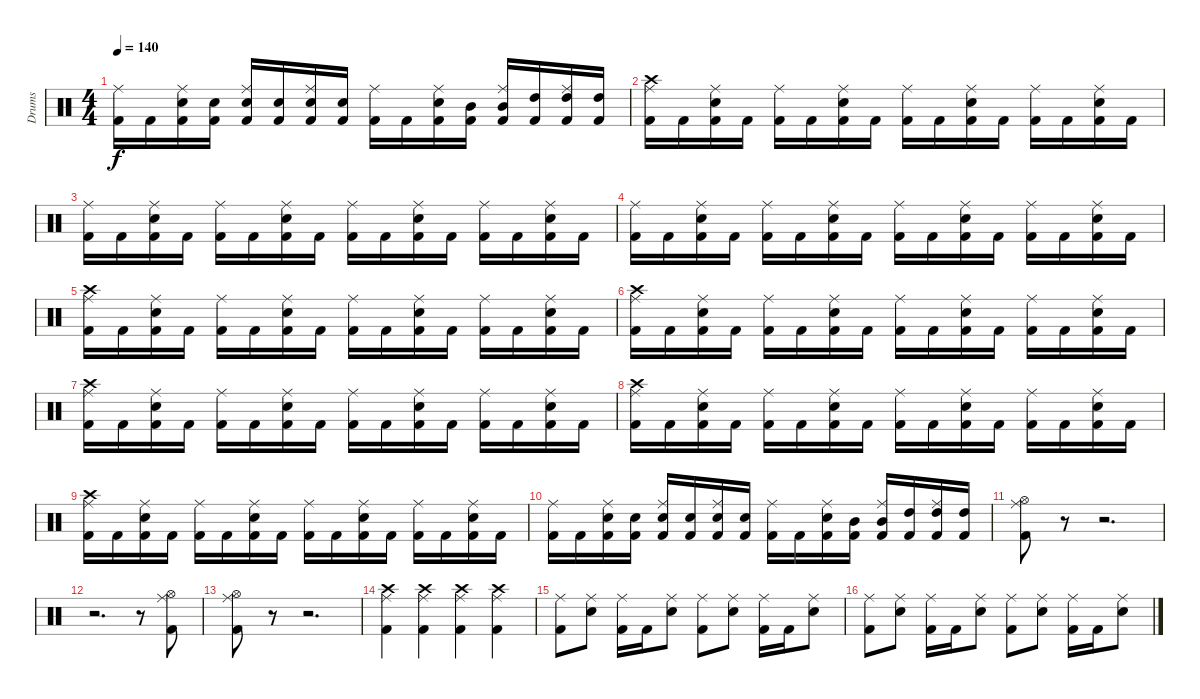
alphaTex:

\track ("Drums" "Drums") {instrument percussion}
\staff {score}
\articulation defaults
\ts (4 4)
\tempo 140
\clef neutral
\ks c
("Kick (hit) 2" "Ride (middle)").16{dy f} "Kick (hit) 2".16 ("Kick (hit) 2" "Snare (hit) 2" "Ride (middle)").16 ("Kick (hit) 2" "Snare (hit) 2").16 ("Kick (hit) 2" "Snare (hit) 2" "Ride (middle)").16 ("Kick (hit) 2" "Snare (hit) 2").16 ("Kick (hit) 2" "Snare (hit) 2" "Ride (middle)").16 ("Kick (hit) 2" "Snare (hit) 2").16 ("Kick (hit) 2" "Ride (middle)").16 "Kick (hit) 2".16 ("Kick (hit) 2" "Snare (hit) 2" "Ride (middle)").16 ("Kick (hit) 2" "Mid Tom (hit)").16 ("Kick (hit) 2" "Mid Tom (hit)" "Ride (middle)").16 ("Kick (hit) 2" "High Tom (hit)").16 ("Kick (hit) 2" "High Tom (hit)" "Ride (middle)").16 ("Kick (hit) 2" "High Tom (hit)").16 |
("Kick (hit) 2" "Crash high (hit)" "Ride (middle)").16 "Kick (hit) 2".16 ("Kick (hit) 2" "Snare (hit) 2" "Ride (middle)").16 "Kick (hit) 2".16 ("Kick (hit) 2" "Ride (middle)").16 "Kick (hit) 2".16 ("Kick (hit) 2" "Snare (hit) 2" "Ride (middle)").16 "Kick (hit) 2".16 ("Kick (hit) 2" "Ride (middle)").16 "Kick (hit) 2".16 ("Kick (hit) 2" "Snare (hit) 2" "Ride (middle)").16 "Kick (hit) 2".16 ("Kick (hit) 2" "Ride (middle)").16 "Kick (hit) 2".16 ("Kick (hit) 2" "Snare (hit) 2" "Ride (middle)").16 "Kick (hit) 2".16 |
("Kick (hit) 2" "Ride (middle)").16 "Kick (hit) 2".16 ("Kick (hit) 2" "Snare (hit) 2" "Ride (middle)").16 "Kick (hit) 2".16 ("Kick (hit) 2" "Ride (middle)").16 "Kick (hit) 2".16 ("Kick (hit) 2" "Snare (hit) 2" "Ride (middle)").16 "Kick (hit) 2".16 ("Kick (hit) 2" "Ride (middle)").16 "Kick (hit) 2".16 ("Kick (hit) 2" "Snare (hit) 2" "Ride (middle)").16 "Kick (hit) 2".16 ("Kick (hit) 2" "Ride (middle)").16 "Kick (hit) 2".16 ("Kick (hit) 2" "Snare (hit) 2" "Ride (middle)").16 "Kick (hit) 2".16 |
("Kick (hit) 2" "Ride (middle)").16 "Kick (hit) 2".16 ("Kick (hit) 2" "Snare (hit) 2" "Ride (middle)").16 "Kick (hit) 2".16 ("Kick (hit) 2" "Ride (middle)").16 "Kick (hit) 2".16 ("Kick (hit) 2" "Snare (hit) 2" "Ride (middle)").16 "Kick (hit) 2".16 ("Kick (hit) 2" "Ride (middle)").16 "Kick (hit) 2".16 ("Kick (hit) 2" "Snare (hit) 2" "Ride (middle)").16 "Kick (hit) 2".16 ("Kick (hit) 2" "Ride (middle)").16 "Kick (hit) 2".16 ("Kick (hit) 2" "Snare (hit) 2" "Ride (middle)").16 "Kick (hit) 2".16 |
("Kick (hit) 2" "Crash high (hit)" "Ride (middle)").16 "Kick (hit) 2".16 ("Kick (hit) 2" "Snare (hit) 2" "Ride (middle)").16 "Kick (hit) 2".16 ("Kick (hit) 2" "Ride (middle)").16 "Kick (hit) 2".16 ("Kick (hit) 2" "Snare (hit) 2" "Ride (middle)").16 "Kick (hit) 2".16 ("Kick (hit) 2" "Ride (middle)").16 "Kick (hit) 2".16 ("Kick (hit) 2" "Snare (hit) 2" "Ride (middle)").16 "Kick (hit) 2".16 ("Kick (hit) 2" "Ride (middle)").16 "Kick (hit) 2".16 ("Kick (hit) 2" "Snare (hit) 2" "Ride (middle)").16 "Kick (hit) 2".16 |
("Kick (hit) 2" "Crash high (hit)" "Ride (middle)").16 "Kick (hit) 2".16 ("Kick (hit) 2" "Snare (hit) 2" "Ride (middle)").16 "Kick (hit) 2".16 ("Kick (hit) 2" "Ride (middle)").16 "Kick (hit) 2".16 ("Kick (hit) 2" "Snare (hit) 2" "Ride (middle)").16 "Kick (hit) 2".16 ("Kick (hit) 2" "Ride (middle)").16 "Kick (hit) 2".16 ("Kick (hit) 2" "Snare (hit) 2" "Ride (middle)").16 "Kick (hit) 2".16 ("Kick (hit) 2" "Ride (middle)").16 "Kick (hit) 2".16 ("Kick (hit) 2" "Snare (hit) 2" "Ride (middle)").16 "Kick (hit) 2".16 |
("Kick (hit) 2" "Crash high (hit)" "Ride (middle)").16 "Kick (hit) 2".16 ("Kick (hit) 2" "Snare (hit) 2" "Ride (middle)").16 "Kick (hit) 2".16 ("Kick (hit) 2" "Ride (middle)").16 "Kick (hit) 2".16 ("Kick (hit) 2" "Snare (hit) 2" "Ride (middle)").16 "Kick (hit) 2".16 ("Kick (hit) 2" "Ride (middle)").16 "Kick (hit) 2".16 ("Kick (hit) 2" "Snare (hit) 2" "Ride (middle)").16 "Kick (hit) 2".16 ("Kick (hit) 2" "Ride (middle)").16 "Kick (hit) 2".16 ("Kick (hit) 2" "Snare (hit) 2" "Ride (middle)").16 "Kick (hit) 2".16 |
("Kick (hit) 2" "Crash high (hit)" "Ride (middle)").16 "Kick (hit) 2".16 ("Kick (hit) 2" "Snare (hit) 2" "Ride (middle)").16 "Kick (hit) 2".16 ("Kick (hit) 2" "Ride (middle)").16 "Kick (hit) 2".16 ("Kick (hit) 2" "Snare (hit) 2" "Ride (middle)").16 "Kick (hit) 2".16 ("Kick (hit) 2" "Ride (middle)").16 "Kick (hit) 2".16 ("Kick (hit) 2" "Snare (hit) 2" "Ride (middle)").16 "Kick (hit) 2".16 ("Kick (hit) 2" "Ride (middle)").16 "Kick (hit) 2".16 ("Kick (hit) 2" "Snare (hit) 2" "Ride (middle)").16 "Kick (hit) 2".16 |
("Kick (hit) 2" "Crash high (hit)" "Ride (middle)").16 "Kick (hit) 2".16 ("Kick (hit) 2" "Snare (hit) 2" "Ride (middle)").16 "Kick (hit) 2".16 ("Kick (hit) 2" "Ride (middle)").16 "Kick (hit) 2".16 ("Kick (hit) 2" "Snare (hit) 2" "Ride (middle)").16 "Kick (hit) 2".16 ("Kick (hit) 2" "Ride (middle)").16 "Kick (hit) 2".16 ("Kick (hit) 2" "Snare (hit) 2" "Ride (middle)").16 "Kick (hit) 2".16 ("Kick (hit) 2" "Ride (middle)").16 "Kick (hit) 2".16 ("Kick (hit) 2" "Snare (hit) 2" "Ride (middle)").16 "Kick (hit) 2".16 |
("Kick (hit) 2" "Ride (middle)").16 "Kick (hit) 2".16 ("Kick (hit) 2" "Snare (hit) 2" "Ride (middle)").16 ("Kick (hit) 2" "Snare (hit) 2").16 ("Kick (hit) 2" "Snare (hit) 2" "Ride (middle)").16 ("Kick (hit) 2" "Snare (hit) 2").16 ("Kick (hit) 2" "Snare (hit) 2" "Ride (middle)").16 ("Kick (hit) 2" "Snare (hit) 2").16 ("Kick (hit) 2" "Ride (middle)").16 "Kick (hit) 2".16 ("Kick (hit) 2" "Snare (hit) 2" "Ride (middle)").16 ("Kick (hit) 2" "Mid Tom (hit)").16 ("Kick (hit) 2" "Mid Tom (hit)" "Ride (middle)").16 ("Kick (hit) 2" "High Tom (hit)").16 ("Kick (hit) 2" "High Tom (hit)" "Ride (middle)").16 ("Kick (hit) 2" "High Tom (hit)").16 |
("Kick (hit) 2" "Hi-Hat (open)" "Ride (middle)").8 r.8 r.2{d} |
r.2{d} r.8 ("Kick (hit) 2" "Hi-Hat (open)" "Ride (middle)").8 |
("Kick (hit) 2" "Hi-Hat (open)" "Ride (middle)").8 r.8 r.2{d} |
("Kick (hit) 2" "Crash high (hit)" "Ride (middle)").4 ("Kick (hit) 2" "Crash high (hit)" "Ride (middle)").4 ("Kick (hit) 2" "Crash high (hit)" "Ride (middle)").4 ("Kick (hit) 2" "Crash high (hit)" "Ride (middle)").4 |
("Kick (hit) 2" "Ride (middle)").8 ("Snare (hit) 2" "Ride (middle)").8 ("Kick (hit) 2" "Ride (middle)").16 "Kick (hit) 2".16 ("Snare (hit) 2" "Ride (middle)").8 ("Kick (hit) 2" "Ride (middle)").8 ("Snare (hit) 2" "Ride (middle)").8 ("Kick (hit) 2" "Ride (middle)").16 "Kick (hit) 2".16 ("Snare (hit) 2" "Ride (middle)").8 |
("Kick (hit) 2" "Ride (middle)").8 ("Snare (hit) 2" "Ride (middle)").8 ("Kick (hit) 2" "Ride (middle)").16 "Kick (hit) 2".16 ("Snare (hit) 2" "Ride (middle)").8 ("Kick (hit) 2" "Ride (middle)").8 ("Snare (hit) 2" "Ride (middle)").8 ("Kick (hit) 2" "Ride (middle)").16 "Kick (hit) 2".16 ("Snare (hit) 2" "Ride (middle)").8
